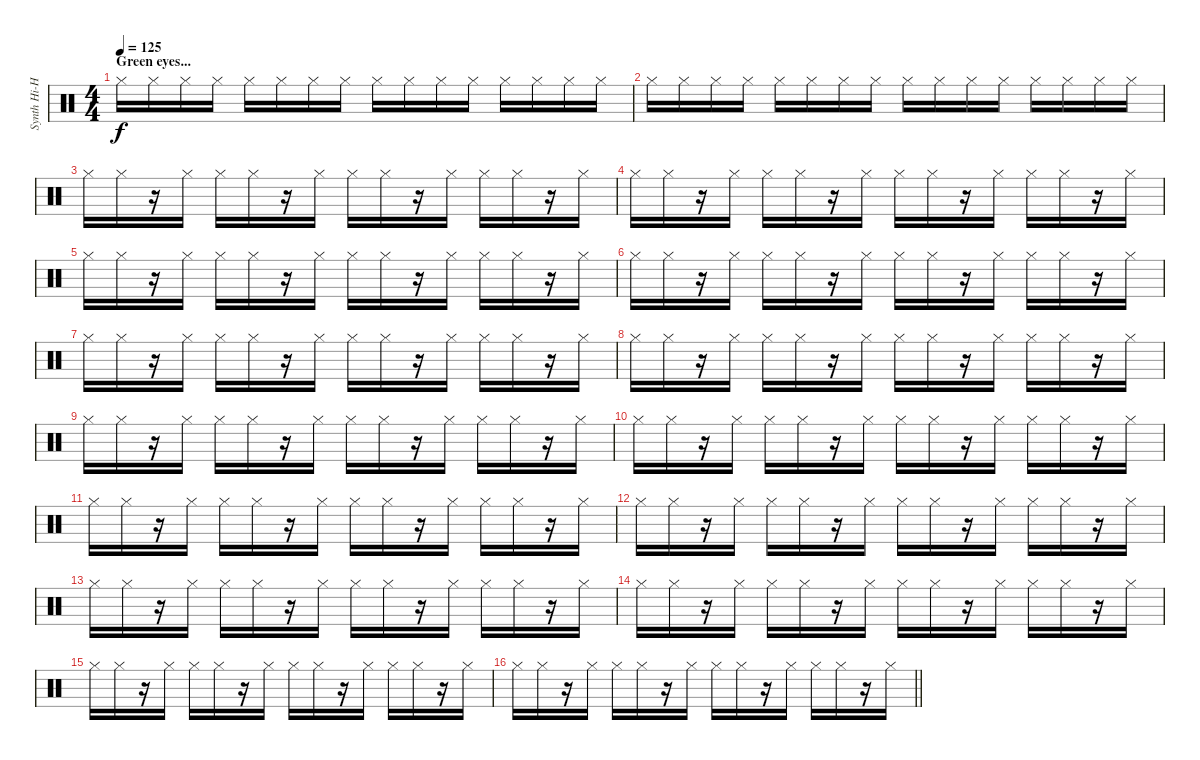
\track ("Synth Hi-Hat (Gillian)" "Synth Hi-H") {instrument percussion}
\staff {score}
\articulation defaults
\ts (4 4)
\section ("" "Green eyes...")
\tempo 125
\clef neutral
\ks c "Hi-Hat (closed)".16{dy f} "Hi-Hat (closed)".16 "Hi-Hat (closed)".16 "Hi-Hat (closed)".16 "Hi-Hat (closed)".16 "Hi-Hat (closed)".16 "Hi-Hat (closed)".16 "Hi-Hat (closed)".16 "Hi-Hat (closed)".16 "Hi-Hat (closed)".16 "Hi-Hat (closed)".16 "Hi-Hat (closed)".16 "Hi-Hat (closed)".16 "Hi-Hat (closed)".16 "Hi-Hat (closed)".16 "Hi-Hat (closed)".16
|
"Hi-Hat (closed)".16 "Hi-Hat (closed)".16 "Hi-Hat (closed)".16 "Hi-Hat (closed)".16 "Hi-Hat (closed)".16 "Hi-Hat (closed)".16 "Hi-Hat (closed)".16 "Hi-Hat (closed)".16 "Hi-Hat (closed)".16 "Hi-Hat (closed)".16 "Hi-Hat (closed)".16 "Hi-Hat (closed)".16 "Hi-Hat (closed)".16 "Hi-Hat (closed)".16 "Hi-Hat (closed)".16 "Hi-Hat (closed)".16 |
"Hi-Hat (closed)".16 "Hi-Hat (closed)".16 r.16 "Hi-Hat (closed)".16 "Hi-Hat (closed)".16 "Hi-Hat (closed)".16 r.16 "Hi-Hat (closed)".16 "Hi-Hat (closed)".16 "Hi-Hat (closed)".16 r.16 "Hi-Hat (closed)".16 "Hi-Hat (closed)".16 "Hi-Hat (closed)".16 r.16 "Hi-Hat (closed)".16 |
"Hi-Hat (closed)".16 "Hi-Hat (closed)".16 r.16 "Hi-Hat (closed)".16 "Hi-Hat (closed)".16 "Hi-Hat (closed)".16 r.16 "Hi-Hat (closed)".16 "Hi-Hat (closed)".16 "Hi-Hat (closed)".16 r.16 "Hi-Hat (closed)".16 "Hi-Hat (closed)".16 "Hi-Hat (closed)".16 r.16 "Hi-Hat (closed)".16 |
"Hi-Hat (closed)".16 "Hi-Hat (closed)".16 r.16 "Hi-Hat (closed)".16 "Hi-Hat (closed)".16 "Hi-Hat (closed)".16 r.16 "Hi-Hat (closed)".16 "Hi-Hat (closed)".16 "Hi-Hat (closed)".16 r.16 "Hi-Hat (closed)".16 "Hi-Hat (closed)".16 "Hi-Hat (closed)".16 r.16 "Hi-Hat (closed)".16 |
"Hi-Hat (closed)".16 "Hi-Hat (closed)".16 r.16 "Hi-Hat (closed)".16 "Hi-Hat (closed)".16 "Hi-Hat (closed)".16 r.16 "Hi-Hat (closed)".16 "Hi-Hat (closed)".16 "Hi-Hat (closed)".16 r.16 "Hi-Hat (closed)".16 "Hi-Hat (closed)".16 "Hi-Hat (closed)".16 r.16 "Hi-Hat (closed)".16 |
"Hi-Hat (closed)".16 "Hi-Hat (closed)".16 r.16 "Hi-Hat (closed)".16 "Hi-Hat (closed)".16 "Hi-Hat (closed)".16 r.16 "Hi-Hat (closed)".16 "Hi-Hat (closed)".16 "Hi-Hat (closed)".16 r.16 "Hi-Hat (closed)".16 "Hi-Hat (closed)".16 "Hi-Hat (closed)".16 r.16 "Hi-Hat (closed)".16 |
"Hi-Hat (closed)".16 "Hi-Hat (closed)".16 r.16 "Hi-Hat (closed)".16 "Hi-Hat (closed)".16 "Hi-Hat (closed)".16 r.16 "Hi-Hat (closed)".16 "Hi-Hat (closed)".16 "Hi-Hat (closed)".16 r.16 "Hi-Hat (closed)".16 "Hi-Hat (closed)".16 "Hi-Hat (closed)".16 r.16 "Hi-Hat (closed)".16 |
"Hi-Hat (closed)".16 "Hi-Hat (closed)".16 r.16 "Hi-Hat (closed)".16 "Hi-Hat (closed)".16 "Hi-Hat (closed)".16 r.16 "Hi-Hat (closed)".16 "Hi-Hat (closed)".16 "Hi-Hat (closed)".16 r.16 "Hi-Hat (closed)".16 "Hi-Hat (closed)".16 "Hi-Hat (closed)".16 r.16 "Hi-Hat (closed)".16 |
"Hi-Hat (closed)".16 "Hi-Hat (closed)".16 r.16 "Hi-Hat (closed)".16 "Hi-Hat (closed)".16 "Hi-Hat (closed)".16 r.16 "Hi-Hat (closed)".16 "Hi-Hat (closed)".16 "Hi-Hat (closed)".16 r.16 "Hi-Hat (closed)".16 "Hi-Hat (closed)".16 "Hi-Hat (closed)".16 r.16 "Hi-Hat (closed)".16 |
"Hi-Hat (closed)".16 "Hi-Hat (closed)".16 r.16 "Hi-Hat (closed)".16 "Hi-Hat (closed)".16 "Hi-Hat (closed)".16 r.16 "Hi-Hat (closed)".16 "Hi-Hat (closed)".16 "Hi-Hat (closed)".16 r.16 "Hi-Hat (closed)".16 "Hi-Hat (closed)".16 "Hi-Hat (closed)".16 r.16 "Hi-Hat (closed)".16 |
"Hi-Hat (closed)".16 "Hi-Hat (closed)".16 r.16 "Hi-Hat (closed)".16 "Hi-Hat (closed)".16 "Hi-Hat (closed)".16 r.16 "Hi-Hat (closed)".16 "Hi-Hat (closed)".16 "Hi-Hat (closed)".16 r.16 "Hi-Hat (closed)".16 "Hi-Hat (closed)".16 "Hi-Hat (closed)".16 r.16 "Hi-Hat (closed)".16 |
"Hi-Hat (closed)".16 "Hi-Hat (closed)".16 r.16 "Hi-Hat (closed)".16 "Hi-Hat (closed)".16 "Hi-Hat (closed)".16 r.16 "Hi-Hat (closed)".16 "Hi-Hat (closed)".16 "Hi-Hat (closed)".16 r.16 "Hi-Hat (closed)".16 "Hi-Hat (closed)".16 "Hi-Hat (closed)".16 r.16 "Hi-Hat (closed)".16 |
"Hi-Hat (closed)".16 "Hi-Hat (closed)".16 r.16 "Hi-Hat (closed)".16 "Hi-Hat (closed)".16 "Hi-Hat (closed)".16 r.16 "Hi-Hat (closed)".16 "Hi-Hat (closed)".16 "Hi-Hat (closed)".16 r.16 "Hi-Hat (closed)".16 "Hi-Hat (closed)".16 "Hi-Hat (closed)".16 r.16 "Hi-Hat (closed)".16 |
"Hi-Hat (closed)".16 "Hi-Hat (closed)".16 r.16 "Hi-Hat (closed)".16 "Hi-Hat (closed)".16 "Hi-Hat (closed)".16 r.16 "Hi-Hat (closed)".16 "Hi-Hat (closed)".16 "Hi-Hat (closed)".16 r.16 "Hi-Hat (closed)".16 "Hi-Hat (closed)".16 "Hi-Hat (closed)".16 r.16 "Hi-Hat (closed)".16 |
\barLineRight lightlight "Hi-Hat (closed)".16 "Hi-Hat (closed)".16
r.16 "Hi-Hat (closed)".16 "Hi-Hat (closed)".16 "Hi-Hat (closed)".16 r.16 "Hi-Hat (closed)".16 "Hi-Hat (closed)".16 "Hi-Hat (closed)".16 r.16 "Hi-Hat (closed)".16 "Hi-Hat (closed)".16 "Hi-Hat (closed)".16 r.16 "Hi-Hat (closed)".16
